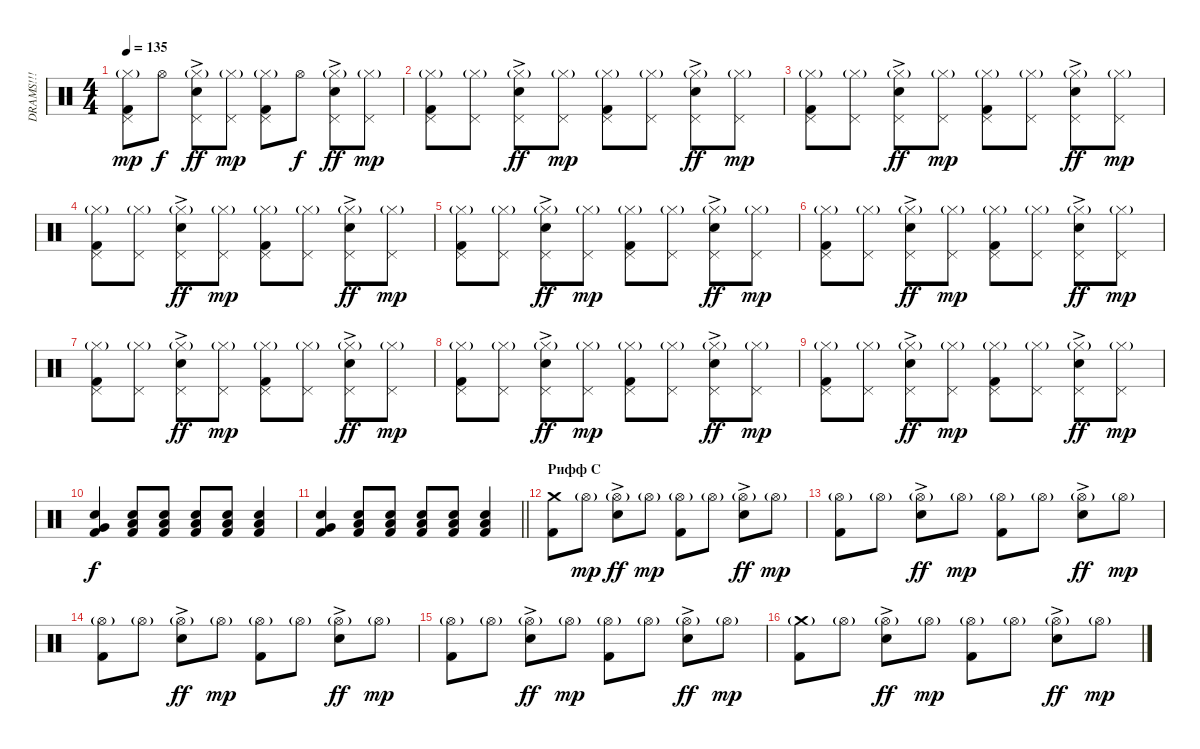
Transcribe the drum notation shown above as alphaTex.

\track ("DRAMS!!!" "DRAMS!!!") {instrument percussion}
\staff {score}
\articulation defaults
\ts (4 4)
\tempo 135
\clef neutral
\ks c
("Pedal Hi-Hat (hit)" "Hi-Hat (closed)"{g} "Kick (hit) 2").8{dy mp} "Hi-Hat (open)".8{dy f} ("Pedal Hi-Hat (hit)" "Hi-Hat (closed)"{g} "Snare (hit) 2"{ac}).8{dy ff} ("Pedal Hi-Hat (hit)" "Hi-Hat (closed)"{g}).8{dy mp} ("Pedal Hi-Hat (hit)" "Hi-Hat (closed)"{g} "Kick (hit) 2").8 "Hi-Hat (open)".8{dy f} ("Pedal Hi-Hat (hit)" "Hi-Hat (closed)"{g} "Snare (hit) 2"{ac}).8{dy ff} ("Pedal Hi-Hat (hit)" "Hi-Hat (closed)"{g}).8{dy mp} |
("Pedal Hi-Hat (hit)" "Hi-Hat (closed)"{g} "Kick (hit) 2").8 ("Pedal Hi-Hat (hit)" "Hi-Hat (closed)"{g}).8 ("Pedal Hi-Hat (hit)" "Hi-Hat (closed)"{g} "Snare (hit) 2"{ac}).8{dy ff} ("Pedal Hi-Hat (hit)" "Hi-Hat (closed)"{g}).8{dy mp} ("Pedal Hi-Hat (hit)" "Hi-Hat (closed)"{g} "Kick (hit) 2").8 ("Pedal Hi-Hat (hit)" "Hi-Hat (closed)"{g}).8 ("Pedal Hi-Hat (hit)" "Hi-Hat (closed)"{g} "Snare (hit) 2"{ac}).8{dy ff} ("Pedal Hi-Hat (hit)" "Hi-Hat (closed)"{g}).8{dy mp} |
("Pedal Hi-Hat (hit)" "Hi-Hat (closed)"{g} "Kick (hit) 2").8 ("Pedal Hi-Hat (hit)" "Hi-Hat (closed)"{g}).8 ("Pedal Hi-Hat (hit)" "Hi-Hat (closed)"{g} "Snare (hit) 2"{ac}).8{dy ff} ("Pedal Hi-Hat (hit)" "Hi-Hat (closed)"{g}).8{dy mp} ("Pedal Hi-Hat (hit)" "Hi-Hat (closed)"{g} "Kick (hit) 2").8 ("Pedal Hi-Hat (hit)" "Hi-Hat (closed)"{g}).8 ("Pedal Hi-Hat (hit)" "Hi-Hat (closed)"{g} "Snare (hit) 2"{ac}).8{dy ff} ("Pedal Hi-Hat (hit)" "Hi-Hat (closed)"{g}).8{dy mp} |
("Pedal Hi-Hat (hit)" "Hi-Hat (closed)"{g} "Kick (hit) 2").8 ("Pedal Hi-Hat (hit)" "Hi-Hat (closed)"{g}).8 ("Pedal Hi-Hat (hit)" "Hi-Hat (closed)"{g} "Snare (hit) 2"{ac}).8{dy ff} ("Pedal Hi-Hat (hit)" "Hi-Hat (closed)"{g}).8{dy mp} ("Pedal Hi-Hat (hit)" "Hi-Hat (closed)"{g} "Kick (hit) 2").8 ("Pedal Hi-Hat (hit)" "Hi-Hat (closed)"{g}).8 ("Pedal Hi-Hat (hit)" "Hi-Hat (closed)"{g} "Snare (hit) 2"{ac}).8{dy ff} ("Pedal Hi-Hat (hit)" "Hi-Hat (closed)"{g}).8{dy mp} |
("Pedal Hi-Hat (hit)" "Hi-Hat (closed)"{g} "Kick (hit) 2").8 ("Pedal Hi-Hat (hit)" "Hi-Hat (closed)"{g}).8 ("Pedal Hi-Hat (hit)" "Hi-Hat (closed)"{g} "Snare (hit) 2"{ac}).8{dy ff} ("Pedal Hi-Hat (hit)" "Hi-Hat (closed)"{g}).8{dy mp} ("Pedal Hi-Hat (hit)" "Hi-Hat (closed)"{g} "Kick (hit) 2").8 ("Pedal Hi-Hat (hit)" "Hi-Hat (closed)"{g}).8 ("Pedal Hi-Hat (hit)" "Hi-Hat (closed)"{g} "Snare (hit) 2"{ac}).8{dy ff} ("Pedal Hi-Hat (hit)" "Hi-Hat (closed)"{g}).8{dy mp} |
("Pedal Hi-Hat (hit)" "Hi-Hat (closed)"{g} "Kick (hit) 2").8 ("Pedal Hi-Hat (hit)" "Hi-Hat (closed)"{g}).8 ("Pedal Hi-Hat (hit)" "Hi-Hat (closed)"{g} "Snare (hit) 2"{ac}).8{dy ff} ("Pedal Hi-Hat (hit)" "Hi-Hat (closed)"{g}).8{dy mp} ("Pedal Hi-Hat (hit)" "Hi-Hat (closed)"{g} "Kick (hit) 2").8 ("Pedal Hi-Hat (hit)" "Hi-Hat (closed)"{g}).8 ("Pedal Hi-Hat (hit)" "Hi-Hat (closed)"{g} "Snare (hit) 2"{ac}).8{dy ff} ("Pedal Hi-Hat (hit)" "Hi-Hat (closed)"{g}).8{dy mp} |
("Pedal Hi-Hat (hit)" "Hi-Hat (closed)"{g} "Kick (hit) 2").8 ("Pedal Hi-Hat (hit)" "Hi-Hat (closed)"{g}).8 ("Pedal Hi-Hat (hit)" "Hi-Hat (closed)"{g} "Snare (hit) 2"{ac}).8{dy ff} ("Pedal Hi-Hat (hit)" "Hi-Hat (closed)"{g}).8{dy mp} ("Pedal Hi-Hat (hit)" "Hi-Hat (closed)"{g} "Kick (hit) 2").8 ("Pedal Hi-Hat (hit)" "Hi-Hat (closed)"{g}).8 ("Pedal Hi-Hat (hit)" "Hi-Hat (closed)"{g} "Snare (hit) 2"{ac}).8{dy ff} ("Pedal Hi-Hat (hit)" "Hi-Hat (closed)"{g}).8{dy mp} |
("Pedal Hi-Hat (hit)" "Hi-Hat (closed)"{g} "Kick (hit) 2").8 ("Pedal Hi-Hat (hit)" "Hi-Hat (closed)"{g}).8 ("Pedal Hi-Hat (hit)" "Hi-Hat (closed)"{g} "Snare (hit) 2"{ac}).8{dy ff} ("Pedal Hi-Hat (hit)" "Hi-Hat (closed)"{g}).8{dy mp} ("Pedal Hi-Hat (hit)" "Hi-Hat (closed)"{g} "Kick (hit) 2").8 ("Pedal Hi-Hat (hit)" "Hi-Hat (closed)"{g}).8 ("Pedal Hi-Hat (hit)" "Hi-Hat (closed)"{g} "Snare (hit) 2"{ac}).8{dy ff} ("Pedal Hi-Hat (hit)" "Hi-Hat (closed)"{g}).8{dy mp} |
("Pedal Hi-Hat (hit)" "Hi-Hat (closed)"{g} "Kick (hit) 2").8 ("Pedal Hi-Hat (hit)" "Hi-Hat (closed)"{g}).8 ("Pedal Hi-Hat (hit)" "Hi-Hat (closed)"{g} "Snare (hit) 2"{ac}).8{dy ff} ("Pedal Hi-Hat (hit)" "Hi-Hat (closed)"{g}).8{dy mp} ("Pedal Hi-Hat (hit)" "Hi-Hat (closed)"{g} "Kick (hit) 2").8 ("Pedal Hi-Hat (hit)" "Hi-Hat (closed)"{g}).8 ("Pedal Hi-Hat (hit)" "Hi-Hat (closed)"{g} "Snare (hit) 2"{ac}).8{dy ff} ("Pedal Hi-Hat (hit)" "Hi-Hat (closed)"{g}).8{dy mp} |
("Hand Clap (hit)" "Very Low Tom (hit)" "Kick (hit) 2").4{dy f} ("Hand Clap (hit)" "Low Tom (hit)" "Kick (hit) 2").8 ("Hand Clap (hit)" "Low Tom (hit)" "Kick (hit) 2").8 ("Hand Clap (hit)" "Low Tom (hit)" "Kick (hit) 2").8 ("Hand Clap (hit)" "Low Tom (hit)" "Kick (hit) 2").8 ("Hand Clap (hit)" "Low Tom (hit)" "Kick (hit) 2").4 |
\barLineRight lightlight
("Hand Clap (hit)" "Very Low Tom (hit)" "Kick (hit) 2").4 ("Hand Clap (hit)" "Low Tom (hit)" "Kick (hit) 2").8 ("Hand Clap (hit)" "Low Tom (hit)" "Kick (hit) 2").8 ("Hand Clap (hit)" "Low Tom (hit)" "Kick (hit) 2").8 ("Hand Clap (hit)" "Low Tom (hit)" "Kick (hit) 2").8 ("Hand Clap (hit)" "Low Tom (hit)" "Kick (hit) 2").4 |
\section ("" "Рифф С")
("Crash medium (hit)" "Kick (hit) 2").8 "Hi-Hat (open)"{g}.8{dy mp} ("Hi-Hat (open)"{g} "Snare (hit) 2"{ac}).8{dy ff} "Hi-Hat (open)"{g}.8{dy mp} ("Hi-Hat (open)"{g} "Kick (hit) 2").8 "Hi-Hat (open)"{g}.8 ("Hi-Hat (open)"{g} "Snare (hit) 2"{ac}).8{dy ff} "Hi-Hat (open)"{g}.8{dy mp} |
("Hi-Hat (open)"{g} "Kick (hit) 2").8 "Hi-Hat (open)"{g}.8 ("Hi-Hat (open)"{g} "Snare (hit) 2"{ac}).8{dy ff} "Hi-Hat (open)"{g}.8{dy mp} ("Hi-Hat (open)"{g} "Kick (hit) 2").8 "Hi-Hat (open)"{g}.8 ("Hi-Hat (open)"{g} "Snare (hit) 2"{ac}).8{dy ff} "Hi-Hat (open)"{g}.8{dy mp} |
("Hi-Hat (open)"{g} "Kick (hit) 2").8 "Hi-Hat (open)"{g}.8 ("Hi-Hat (open)"{g} "Snare (hit) 2"{ac}).8{dy ff} "Hi-Hat (open)"{g}.8{dy mp} ("Hi-Hat (open)"{g} "Kick (hit) 2").8 "Hi-Hat (open)"{g}.8 ("Hi-Hat (open)"{g} "Snare (hit) 2"{ac}).8{dy ff} "Hi-Hat (open)"{g}.8{dy mp} |
("Hi-Hat (open)"{g} "Kick (hit) 2").8 "Hi-Hat (open)"{g}.8 ("Hi-Hat (open)"{g} "Snare (hit) 2"{ac}).8{dy ff} "Hi-Hat (open)"{g}.8{dy mp} ("Hi-Hat (open)"{g} "Kick (hit) 2").8 "Hi-Hat (open)"{g}.8 ("Hi-Hat (open)"{g} "Snare (hit) 2"{ac}).8{dy ff} "Hi-Hat (open)"{g}.8{dy mp} |
("Crash medium (hit)"{g} "Kick (hit) 2").8 "Hi-Hat (open)"{g}.8 ("Hi-Hat (open)"{g} "Snare (hit) 2"{ac}).8{dy ff} "Hi-Hat (open)"{g}.8{dy mp} ("Hi-Hat (open)"{g} "Kick (hit) 2").8 "Hi-Hat (open)"{g}.8 ("Hi-Hat (open)"{g} "Snare (hit) 2"{ac}).8{dy ff} "Hi-Hat (open)"{g}.8{dy mp}
